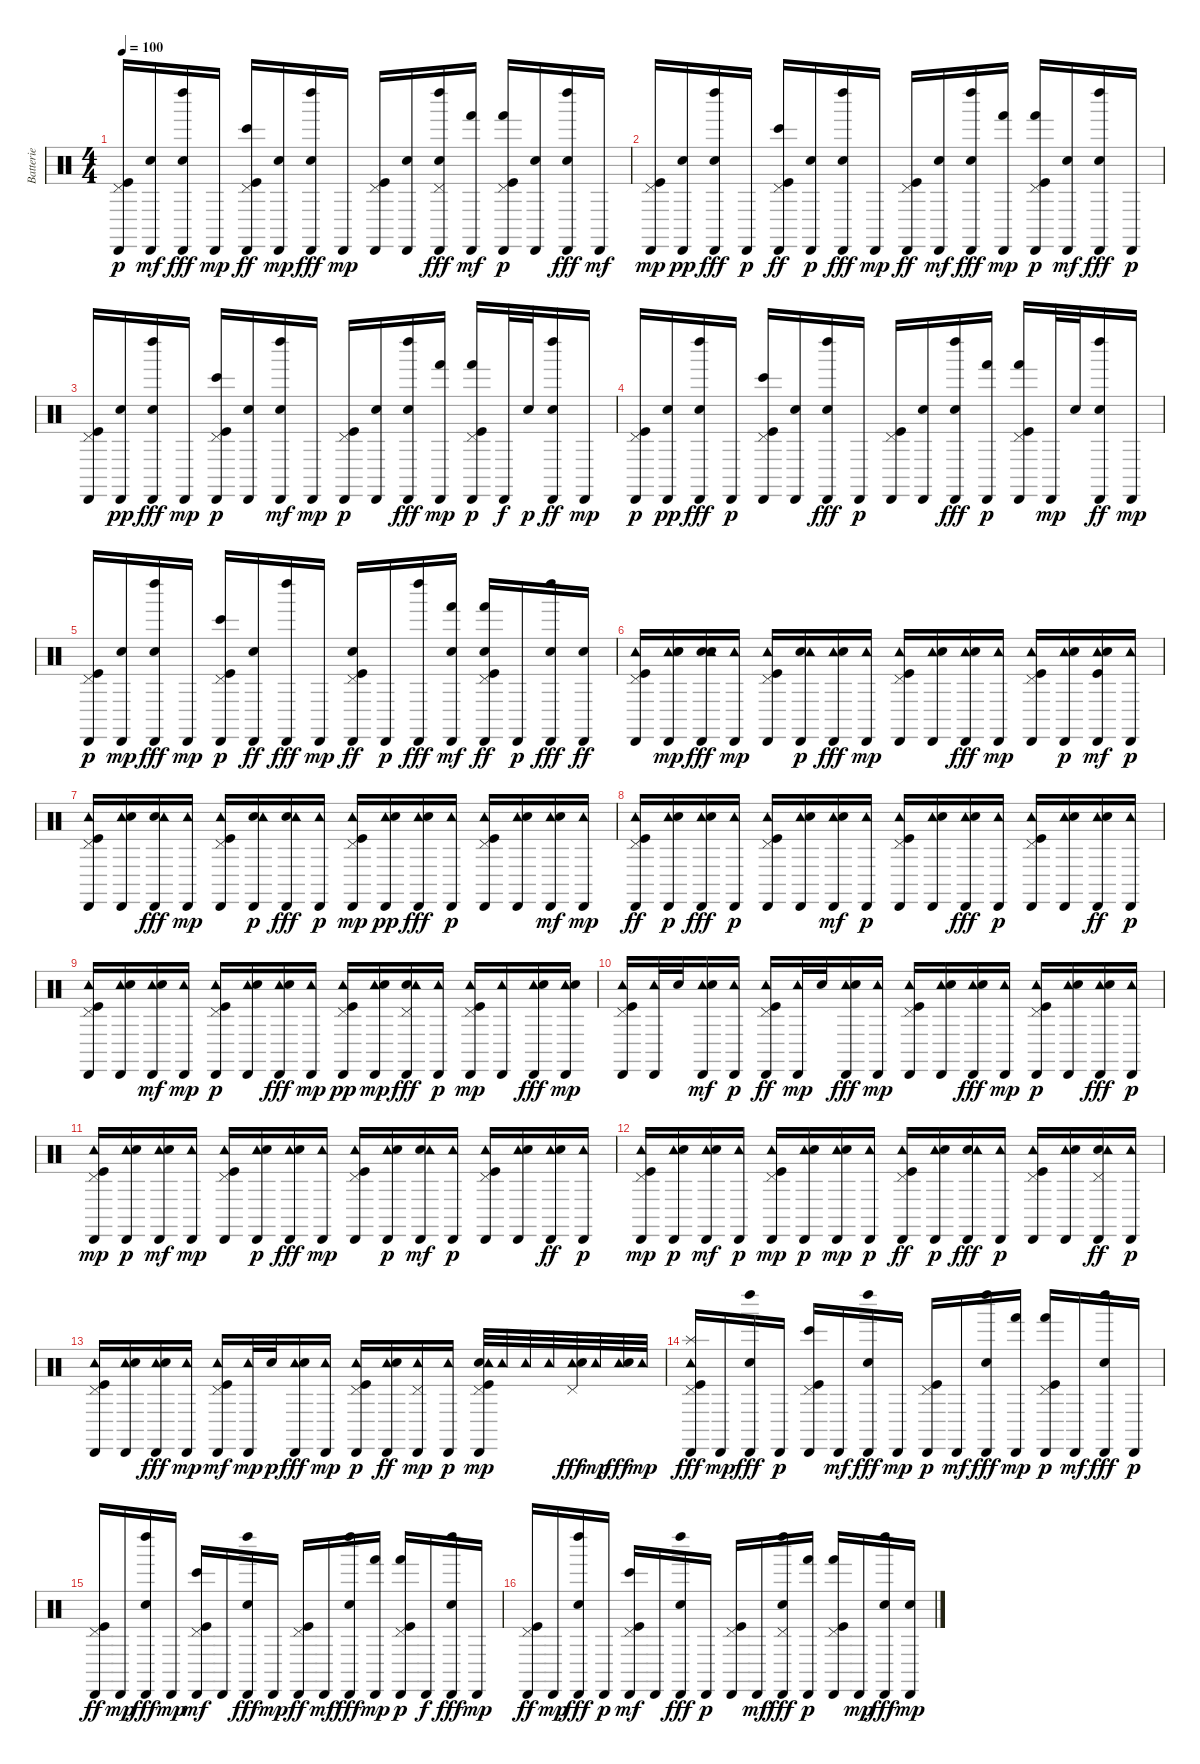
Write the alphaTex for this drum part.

\track ("Batterie" "Batterie") {instrument percussion}
\staff {score}
\articulation defaults
\ts (4 4)
\tempo 100
\clef neutral
\ks c
("Pedal Hi-Hat (hit)" "Kick (hit)" "Cabasa (hit)").16{dy p} ("Cabasa (hit)" "Electric Snare (hit)").16{dy mf} ("Cabasa (hit)" "Left Maraca (hit)" "Electric Snare (hit)").16{dy fff} "Cabasa (hit)".16{dy mp} ("Pedal Hi-Hat (hit)" "Cabasa (hit)" "Kick (hit)" "Bongo High (hit)").16{dy ff} ("Cabasa (hit)" "Electric Snare (hit)").16{dy mp} ("Cabasa (hit)" "Left Maraca (hit)" "Electric Snare (hit)").16{dy fff} "Cabasa (hit)".16{dy mp} ("Pedal Hi-Hat (hit)" "Kick (hit)" "Cabasa (hit)").16 ("Cabasa (hit)" "Electric Snare (hit)").16 ("Pedal Hi-Hat (hit)" "Cabasa (hit)" "Left Maraca (hit)" "Electric Snare (hit)").16{dy fff} ("Cabasa (hit)" "Hand (hit)").16{dy mf} ("Hand (hit)" "Pedal Hi-Hat (hit)" "Cabasa (hit)" "Kick (hit)").16{dy p} ("Cabasa (hit)" "Electric Snare (hit)").16 ("Cabasa (hit)" "Electric Snare (hit)" "Left Maraca (hit)").16{dy fff} "Cabasa (hit)".16{dy mf} |
("Pedal Hi-Hat (hit)" "Kick (hit)" "Cabasa (hit)").16{dy mp} ("Cabasa (hit)" "Electric Snare (hit)").16{dy pp} ("Cabasa (hit)" "Electric Snare (hit)" "Left Maraca (hit)").16{dy fff} "Cabasa (hit)".16{dy p} ("Cabasa (hit)" "Bongo High (hit)" "Kick (hit)" "Pedal Hi-Hat (hit)").16{dy ff} ("Cabasa (hit)" "Electric Snare (hit)").16{dy p} ("Cabasa (hit)" "Electric Snare (hit)" "Left Maraca (hit)").16{dy fff} "Cabasa (hit)".16{dy mp} ("Cabasa (hit)" "Kick (hit)" "Pedal Hi-Hat (hit)").16{dy ff} ("Electric Snare (hit)" "Cabasa (hit)").16{dy mf} ("Electric Snare (hit)" "Left Maraca (hit)" "Cabasa (hit)").16{dy fff} ("Hand (hit)" "Cabasa (hit)").16{dy mp} ("Kick (hit)" "Hand (hit)" "Pedal Hi-Hat (hit)" "Cabasa (hit)").16{dy p} ("Electric Snare (hit)" "Cabasa (hit)").16{dy mf} ("Electric Snare (hit)" "Left Maraca (hit)" "Cabasa (hit)").16{dy fff} "Cabasa (hit)".16{dy p} |
("Pedal Hi-Hat (hit)" "Cabasa (hit)" "Kick (hit)").16 ("Cabasa (hit)" "Electric Snare (hit)").16{dy pp} ("Left Maraca (hit)" "Cabasa (hit)" "Electric Snare (hit)").16{dy fff} "Cabasa (hit)".16{dy mp} ("Bongo High (hit)" "Pedal Hi-Hat (hit)" "Kick (hit)" "Cabasa (hit)").16{dy p} ("Cabasa (hit)" "Electric Snare (hit)").16 ("Cabasa (hit)" "Left Maraca (hit)" "Electric Snare (hit)").16{dy mf} "Cabasa (hit)".16{dy mp} ("Cabasa (hit)" "Pedal Hi-Hat (hit)" "Kick (hit)").16{dy p} ("Cabasa (hit)" "Electric Snare (hit)").16 ("Cabasa (hit)" "Left Maraca (hit)" "Electric Snare (hit)").16{dy fff} ("Hand (hit)" "Cabasa (hit)").16{dy mp} ("Hand (hit)" "Pedal Hi-Hat (hit)" "Kick (hit)" "Cabasa (hit)").16{dy p} "Cabasa (hit)".32{dy f} "Electric Snare (hit)".32{dy p} ("Left Maraca (hit)" "Cabasa (hit)" "Electric Snare (hit)").16{dy ff} "Cabasa (hit)".16{dy mp} |
("Kick (hit)" "Pedal Hi-Hat (hit)" "Cabasa (hit)").16{dy p} ("Cabasa (hit)" "Electric Snare (hit)").16{dy pp} ("Left Maraca (hit)" "Cabasa (hit)" "Electric Snare (hit)").16{dy fff} "Cabasa (hit)".16{dy p} ("Kick (hit)" "Pedal Hi-Hat (hit)" "Bongo High (hit)" "Cabasa (hit)").16 ("Cabasa (hit)" "Electric Snare (hit)").16 ("Cabasa (hit)" "Left Maraca (hit)" "Electric Snare (hit)").16{dy fff} "Cabasa (hit)".16{dy p} ("Kick (hit)" "Pedal Hi-Hat (hit)" "Cabasa (hit)").16 ("Cabasa (hit)" "Electric Snare (hit)").16 ("Left Maraca (hit)" "Electric Snare (hit)" "Cabasa (hit)").16{dy fff} ("Hand (hit)" "Cabasa (hit)").16{dy p} ("Pedal Hi-Hat (hit)" "Kick (hit)" "Hand (hit)" "Cabasa (hit)").16 "Cabasa (hit)".32{dy mp} "Electric Snare (hit)".32 ("Left Maraca (hit)" "Cabasa (hit)" "Electric Snare (hit)").16{dy ff} "Cabasa (hit)".16{dy mp} |
("Pedal Hi-Hat (hit)" "Kick (hit)" "Cabasa (hit)").16{dy p} ("Cabasa (hit)" "Electric Snare (hit)").16{dy mp} ("Left Maraca (hit)" "Cabasa (hit)" "Electric Snare (hit)").16{dy fff} "Cabasa (hit)".16{dy mp} ("Kick (hit)" "Pedal Hi-Hat (hit)" "Cabasa (hit)" "Bongo High (hit)").16{dy p} ("Cabasa (hit)" "Hand Clap (hit)").16{dy ff} ("Cabasa (hit)" "Left Maraca (hit)").16{dy fff} "Cabasa (hit)".16{dy mp} ("Kick (hit)" "Hand Clap (hit)" "Pedal Hi-Hat (hit)" "Cabasa (hit)").16{dy ff} "Cabasa (hit)".16{dy p} ("Cabasa (hit)" "Left Maraca (hit)").16{dy fff} ("Hand (hit)" "Cabasa (hit)" "Hand Clap (hit)").16{dy mf} ("Hand (hit)" "Kick (hit)" "Hand Clap (hit)" "Pedal Hi-Hat (hit)" "Cabasa (hit)").16{dy ff} "Cabasa (hit)".16{dy p} ("Hand Clap (hit)" "Cabasa (hit)" "Left Maraca (hit)").16{dy fff} ("Cabasa (hit)" "Hand Clap (hit)").16{dy ff} |
("Kick (hit)" "Cabasa (hit)" "Tambourine (hit)" "Pedal Hi-Hat (hit)").16 ("Tambourine (hit)" "Cabasa (hit)" "Electric Snare (hit)" "Electric Snare (hit)").16{dy mp} ("Cabasa (hit)" "Electric Snare (hit)" "Electric Snare (hit)" "Tambourine (hit)").16{dy fff} ("Cabasa (hit)" "Tambourine (hit)").16{dy mp} ("Cabasa (hit)" "Kick (hit)" "Pedal Hi-Hat (hit)" "Tambourine (hit)").16 ("Cabasa (hit)" "Electric Snare (hit)" "Tambourine (hit)").16{dy p} ("Cabasa (hit)" "Tambourine (hit)" "Electric Snare (hit)").16{dy fff} ("Cabasa (hit)" "Tambourine (hit)").16{dy mp} ("Kick (hit)" "Cabasa (hit)" "Tambourine (hit)" "Pedal Hi-Hat (hit)").16 ("Cabasa (hit)" "Tambourine (hit)" "Electric Snare (hit)").16 ("Cabasa (hit)" "Tambourine (hit)" "Electric Snare (hit)").16{dy fff} ("Tambourine (hit)" "Cabasa (hit)").16{dy mp} ("Kick (hit)" "Pedal Hi-Hat (hit)" "Cabasa (hit)" "Tambourine (hit)").16 ("Cabasa (hit)" "Tambourine (hit)" "Electric Snare (hit)").16{dy p} ("Kick (hit)" "Cabasa (hit)" "Tambourine (hit)" "Electric Snare (hit)").16{dy mf} ("Cabasa (hit)" "Tambourine (hit)").16{dy p} |
("Cabasa (hit)" "Tambourine (hit)" "Kick (hit)" "Pedal Hi-Hat (hit)").16 ("Cabasa (hit)" "Tambourine (hit)" "Electric Snare (hit)").16 ("Electric Snare (hit)" "Tambourine (hit)" "Cabasa (hit)").16{dy fff} ("Cabasa (hit)" "Tambourine (hit)").16{dy mp} ("Cabasa (hit)" "Pedal Hi-Hat (hit)" "Tambourine (hit)" "Kick (hit)").16 ("Cabasa (hit)" "Electric Snare (hit)" "Tambourine (hit)").16{dy p} ("Cabasa (hit)" "Electric Snare (hit)" "Tambourine (hit)").16{dy fff} ("Cabasa (hit)" "Tambourine (hit)").16{dy p} ("Cabasa (hit)" "Kick (hit)" "Pedal Hi-Hat (hit)" "Tambourine (hit)").16{dy mp} ("Cabasa (hit)" "Tambourine (hit)" "Electric Snare (hit)").16{dy pp} ("Cabasa (hit)" "Tambourine (hit)" "Electric Snare (hit)").16{dy fff} ("Cabasa (hit)" "Tambourine (hit)").16{dy p} ("Kick (hit)" "Tambourine (hit)" "Pedal Hi-Hat (hit)" "Cabasa (hit)").16 ("Cabasa (hit)" "Tambourine (hit)" "Electric Snare (hit)").16 ("Cabasa (hit)" "Tambourine (hit)" "Electric Snare (hit)").16{dy mf} ("Cabasa (hit)" "Tambourine (hit)").16{dy mp} |
("Kick (hit)" "Tambourine (hit)" "Cabasa (hit)" "Pedal Hi-Hat (hit)").16{dy ff} ("Cabasa (hit)" "Tambourine (hit)" "Electric Snare (hit)").16{dy p} ("Cabasa (hit)" "Tambourine (hit)" "Electric Snare (hit)").16{dy fff} ("Cabasa (hit)" "Tambourine (hit)").16{dy p} ("Kick (hit)" "Tambourine (hit)" "Cabasa (hit)" "Pedal Hi-Hat (hit)").16 ("Tambourine (hit)" "Cabasa (hit)" "Electric Snare (hit)").16 ("Cabasa (hit)" "Tambourine (hit)" "Electric Snare (hit)").16{dy mf} ("Tambourine (hit)" "Cabasa (hit)").16{dy p} ("Kick (hit)" "Tambourine (hit)" "Cabasa (hit)" "Pedal Hi-Hat (hit)").16 ("Cabasa (hit)" "Tambourine (hit)" "Electric Snare (hit)").16 ("Tambourine (hit)" "Cabasa (hit)" "Electric Snare (hit)").16{dy fff} ("Tambourine (hit)" "Cabasa (hit)").16{dy p} ("Kick (hit)" "Tambourine (hit)" "Pedal Hi-Hat (hit)" "Cabasa (hit)").16 ("Tambourine (hit)" "Cabasa (hit)" "Electric Snare (hit)").16 ("Cabasa (hit)" "Tambourine (hit)" "Electric Snare (hit)").16{dy ff} ("Cabasa (hit)" "Tambourine (hit)").16{dy p} |
("Kick (hit)" "Tambourine (hit)" "Pedal Hi-Hat (hit)" "Cabasa (hit)").16 ("Tambourine (hit)" "Cabasa (hit)" "Electric Snare (hit)").16 ("Cabasa (hit)" "Tambourine (hit)" "Electric Snare (hit)").16{dy mf} ("Tambourine (hit)" "Cabasa (hit)").16{dy mp} ("Kick (hit)" "Tambourine (hit)" "Cabasa (hit)" "Pedal Hi-Hat (hit)").16{dy p} ("Tambourine (hit)" "Cabasa (hit)" "Electric Snare (hit)").16 ("Cabasa (hit)" "Tambourine (hit)" "Electric Snare (hit)").16{dy fff} ("Tambourine (hit)" "Cabasa (hit)").16{dy mp} ("Kick (hit)" "Pedal Hi-Hat (hit)" "Cabasa (hit)" "Tambourine (hit)").16{dy pp} ("Cabasa (hit)" "Tambourine (hit)" "Electric Snare (hit)").16{dy mp} ("Electric Snare (hit)" "Cabasa (hit)" "Tambourine (hit)" "Pedal Hi-Hat (hit)").16{dy fff} ("Cabasa (hit)" "Tambourine (hit)").16{dy p} ("Kick (hit)" "Cabasa (hit)" "Pedal Hi-Hat (hit)" "Tambourine (hit)").16{dy mp} ("Cabasa (hit)" "Tambourine (hit)").16 ("Tambourine (hit)" "Cabasa (hit)" "Hand Clap (hit)").16{dy fff} ("Cabasa (hit)" "Tambourine (hit)" "Hand Clap (hit)").16{dy mp} |
("Kick (hit)" "Tambourine (hit)" "Cabasa (hit)" "Pedal Hi-Hat (hit)").16 ("Tambourine (hit)" "Cabasa (hit)").32 "Electric Snare (hit)".32 ("Tambourine (hit)" "Cabasa (hit)" "Electric Snare (hit)").16{dy mf} ("Tambourine (hit)" "Cabasa (hit)").16{dy p} ("Kick (hit)" "Cabasa (hit)" "Tambourine (hit)" "Pedal Hi-Hat (hit)").16{dy ff} ("Cabasa (hit)" "Tambourine (hit)").32{dy mp} "Electric Snare (hit)".32 ("Tambourine (hit)" "Cabasa (hit)" "Electric Snare (hit)").16{dy fff} ("Tambourine (hit)" "Cabasa (hit)").16{dy mp} ("Cabasa (hit)" "Kick (hit)" "Pedal Hi-Hat (hit)" "Tambourine (hit)").16 ("Tambourine (hit)" "Cabasa (hit)" "Electric Snare (hit)").16 ("Tambourine (hit)" "Cabasa (hit)" "Electric Snare (hit)").16{dy fff} ("Tambourine (hit)" "Cabasa (hit)").16{dy mp} ("Kick (hit)" "Tambourine (hit)" "Pedal Hi-Hat (hit)" "Cabasa (hit)").16{dy p} ("Tambourine (hit)" "Cabasa (hit)" "Electric Snare (hit)").16 ("Tambourine (hit)" "Cabasa (hit)" "Electric Snare (hit)").16{dy fff} ("Cabasa (hit)" "Tambourine (hit)").16{dy p} |
("Cabasa (hit)" "Kick (hit)" "Pedal Hi-Hat (hit)" "Tambourine (hit)").16{dy mp} ("Cabasa (hit)" "Tambourine (hit)" "Electric Snare (hit)").16{dy p} ("Cabasa (hit)" "Tambourine (hit)" "Electric Snare (hit)").16{dy mf} ("Cabasa (hit)" "Tambourine (hit)").16{dy mp} ("Pedal Hi-Hat (hit)" "Cabasa (hit)" "Kick (hit)" "Tambourine (hit)").16 ("Cabasa (hit)" "Tambourine (hit)" "Electric Snare (hit)").16{dy p} ("Cabasa (hit)" "Tambourine (hit)" "Electric Snare (hit)").16{dy fff} ("Tambourine (hit)" "Cabasa (hit)").16{dy mp} ("Kick (hit)" "Pedal Hi-Hat (hit)" "Cabasa (hit)" "Tambourine (hit)").16 ("Cabasa (hit)" "Tambourine (hit)" "Electric Snare (hit)").16{dy p} ("Cabasa (hit)" "Electric Snare (hit)" "Tambourine (hit)").16{dy mf} ("Cabasa (hit)" "Tambourine (hit)").16{dy p} ("Kick (hit)" "Tambourine (hit)" "Pedal Hi-Hat (hit)" "Cabasa (hit)").16 ("Tambourine (hit)" "Cabasa (hit)" "Electric Snare (hit)").16 ("Tambourine (hit)" "Cabasa (hit)" "Electric Snare (hit)").16{dy ff} ("Cabasa (hit)" "Tambourine (hit)").16{dy p} |
("Kick (hit)" "Cabasa (hit)" "Pedal Hi-Hat (hit)" "Tambourine (hit)").16{dy mp} ("Cabasa (hit)" "Tambourine (hit)" "Electric Snare (hit)").16{dy p} ("Tambourine (hit)" "Cabasa (hit)" "Electric Snare (hit)").16{dy mf} ("Tambourine (hit)" "Cabasa (hit)").16{dy p} ("Kick (hit)" "Cabasa (hit)" "Pedal Hi-Hat (hit)" "Tambourine (hit)").16{dy mp} ("Tambourine (hit)" "Cabasa (hit)" "Electric Snare (hit)").16{dy p} ("Cabasa (hit)" "Tambourine (hit)" "Electric Snare (hit)").16{dy mp} ("Tambourine (hit)" "Cabasa (hit)").16{dy p} ("Pedal Hi-Hat (hit)" "Tambourine (hit)" "Cabasa (hit)" "Kick (hit)").16{dy ff} ("Cabasa (hit)" "Tambourine (hit)" "Electric Snare (hit)").16{dy p} ("Electric Snare (hit)" "Tambourine (hit)" "Cabasa (hit)").16{dy fff} ("Tambourine (hit)" "Cabasa (hit)").16{dy p} ("Pedal Hi-Hat (hit)" "Kick (hit)" "Tambourine (hit)" "Cabasa (hit)").16 ("Cabasa (hit)" "Tambourine (hit)" "Electric Snare (hit)").16 ("Electric Snare (hit)" "Tambourine (hit)" "Cabasa (hit)" "Pedal Hi-Hat (hit)").16{dy ff} ("Cabasa (hit)" "Tambourine (hit)").16{dy p} |
("Kick (hit)" "Pedal Hi-Hat (hit)" "Tambourine (hit)" "Cabasa (hit)").16 ("Tambourine (hit)" "Cabasa (hit)" "Electric Snare (hit)").16 ("Tambourine (hit)" "Cabasa (hit)" "Electric Snare (hit)").16{dy fff} ("Tambourine (hit)" "Cabasa (hit)").16{dy mp} ("Kick (hit)" "Tambourine (hit)" "Cabasa (hit)" "Pedal Hi-Hat (hit)").16{dy mf} ("Tambourine (hit)" "Cabasa (hit)").32{dy mp} "Electric Snare (hit)".32{dy p} ("Cabasa (hit)" "Tambourine (hit)" "Electric Snare (hit)").16{dy fff} ("Tambourine (hit)" "Cabasa (hit)").16{dy mp} ("Kick (hit)" "Cabasa (hit)" "Pedal Hi-Hat (hit)" "Tambourine (hit)").16{dy p} ("Cabasa (hit)" "Tambourine (hit)" "Hand Clap (hit)").16{dy ff} ("Cabasa (hit)" "Pedal Hi-Hat (hit)" "Tambourine (hit)").16{dy mp} ("Cabasa (hit)" "Tambourine (hit)").16{dy p} ("Kick (hit)" "Hand Clap (hit)" "Cabasa (hit)" "Pedal Hi-Hat (hit)" "Tambourine (hit)").32{dy mp} "Tambourine (hit)".32 "Tambourine (hit)".32 "Tambourine (hit)".32 ("Tambourine (hit)" "Pedal Hi-Hat (hit)" "Hand Clap (hit)").32{dy fff} "Tambourine (hit)".32{dy mp} ("Tambourine (hit)" "Hand Clap (hit)").32{dy fff} "Tambourine (hit)".32{dy mp} |
("Tambourine (hit)" "Kick (hit)" "Cabasa (hit)" "Pedal Hi-Hat (hit)" "Splash (hit)").16{dy fff} "Cabasa (hit)".16{dy mp} ("Cabasa (hit)" "Left Maraca (hit)" "Hand Clap (hit)").16{dy fff} "Cabasa (hit)".16{dy p} ("Cabasa (hit)" "Bongo High (hit)" "Pedal Hi-Hat (hit)" "Kick (hit)").16 "Cabasa (hit)".16{dy mf} ("Hand Clap (hit)" "Cabasa (hit)" "Left Maraca (hit)").16{dy fff} "Cabasa (hit)".16{dy mp} ("Cabasa (hit)" "Kick (hit)" "Pedal Hi-Hat (hit)").16{dy p} "Cabasa (hit)".16{dy mf} ("Cabasa (hit)" "Left Maraca (hit)" "Hand Clap (hit)").16{dy fff} ("Hand (hit)" "Cabasa (hit)").16{dy mp} ("Kick (hit)" "Pedal Hi-Hat (hit)" "Hand (hit)" "Cabasa (hit)").16{dy p} "Cabasa (hit)".16{dy mf} ("Cabasa (hit)" "Left Maraca (hit)" "Hand Clap (hit)").16{dy fff} "Cabasa (hit)".16{dy p} |
("Cabasa (hit)" "Pedal Hi-Hat (hit)" "Kick (hit)").16{dy ff} "Cabasa (hit)".16{dy mp} ("Cabasa (hit)" "Left Maraca (hit)" "Hand Clap (hit)").16{dy fff} "Cabasa (hit)".16{dy mp} ("Bongo High (hit)" "Cabasa (hit)" "Pedal Hi-Hat (hit)" "Kick (hit)").16{dy mf} "Cabasa (hit)".16 ("Cabasa (hit)" "Left Maraca (hit)" "Hand Clap (hit)").16{dy fff} "Cabasa (hit)".16{dy mp} ("Kick (hit)" "Cabasa (hit)" "Pedal Hi-Hat (hit)").16{dy ff} "Cabasa (hit)".16{dy mf} ("Left Maraca (hit)" "Cabasa (hit)" "Hand Clap (hit)").16{dy fff} ("Hand (hit)" "Cabasa (hit)").16{dy mp} ("Hand (hit)" "Kick (hit)" "Pedal Hi-Hat (hit)" "Cabasa (hit)").16{dy p} "Cabasa (hit)".16{dy f} ("Cabasa (hit)" "Left Maraca (hit)" "Hand Clap (hit)").16{dy fff} "Cabasa (hit)".16{dy mp} |
("Kick (hit)" "Cabasa (hit)" "Pedal Hi-Hat (hit)").16{dy ff} "Cabasa (hit)".16{dy mp} ("Cabasa (hit)" "Left Maraca (hit)" "Hand Clap (hit)").16{dy fff} "Cabasa (hit)".16{dy p} ("Kick (hit)" "Bongo High (hit)" "Cabasa (hit)" "Pedal Hi-Hat (hit)").16{dy mf} "Cabasa (hit)".16 ("Cabasa (hit)" "Hand Clap (hit)" "Left Maraca (hit)").16{dy fff} "Cabasa (hit)".16{dy p} ("Kick (hit)" "Pedal Hi-Hat (hit)" "Cabasa (hit)").16 "Cabasa (hit)".16{dy mf} ("Pedal Hi-Hat (hit)" "Hand Clap (hit)" "Cabasa (hit)" "Left Maraca (hit)").16{dy fff} ("Hand (hit)" "Cabasa (hit)").16{dy p} ("Kick (hit)" "Hand (hit)" "Pedal Hi-Hat (hit)" "Cabasa (hit)").16 "Cabasa (hit)".16{dy mp} ("Cabasa (hit)" "Hand Clap (hit)" "Left Maraca (hit)").16{dy fff} ("Hand Clap (hit)" "Cabasa (hit)").16{dy mp}
